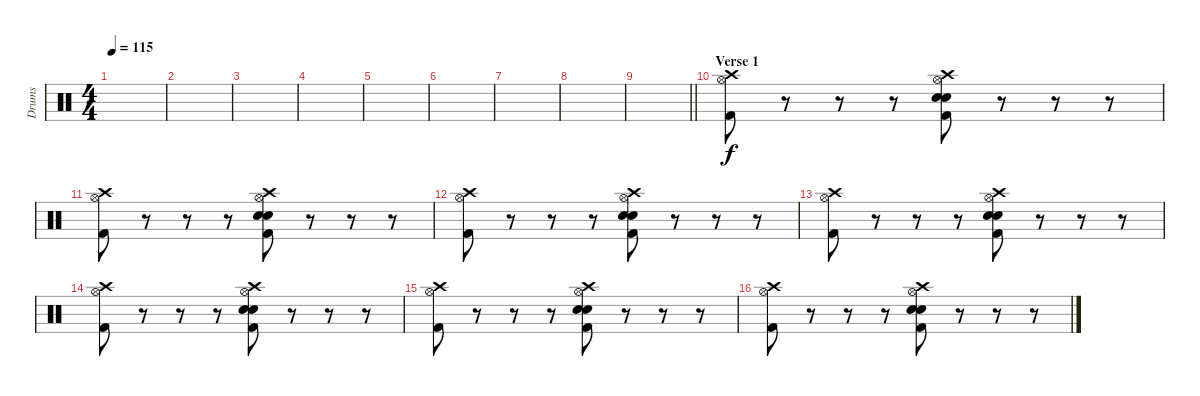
\track ("Drums" "Drums") {instrument percussion}
\staff {score}
\articulation defaults
\ts (4 4)
\tempo 115
\clef neutral
\ks c
|
|
|
|
|
|
|
|
\barLineRight lightlight
|
\section ("" "Verse 1")
("Crash high (hit)" "Hi-Hat (open)" "Kick (hit) 2").8 r.8 r.8 r.8 ("Crash high (hit)" "Hi-Hat (open)" "Electric Snare (hit)" "Snare (hit) 2" "Kick (hit) 2").8 r.8 r.8 r.8 |
("Crash high (hit)" "Hi-Hat (open)" "Kick (hit) 2").8 r.8 r.8 r.8 ("Crash high (hit)" "Hi-Hat (open)" "Electric Snare (hit)" "Snare (hit) 2" "Kick (hit) 2").8 r.8 r.8 r.8 |
("Crash high (hit)" "Hi-Hat (open)" "Kick (hit) 2").8 r.8 r.8 r.8 ("Crash high (hit)" "Hi-Hat (open)" "Electric Snare (hit)" "Snare (hit) 2" "Kick (hit) 2").8 r.8 r.8 r.8 |
("Crash high (hit)" "Hi-Hat (open)" "Kick (hit) 2").8 r.8 r.8 r.8 ("Crash high (hit)" "Hi-Hat (open)" "Electric Snare (hit)" "Snare (hit) 2" "Kick (hit) 2").8 r.8 r.8 r.8 |
("Crash high (hit)" "Hi-Hat (open)" "Kick (hit) 2").8 r.8 r.8 r.8 ("Crash high (hit)" "Hi-Hat (open)" "Electric Snare (hit)" "Snare (hit) 2" "Kick (hit) 2").8 r.8 r.8 r.8 |
("Crash high (hit)" "Hi-Hat (open)" "Kick (hit) 2").8 r.8 r.8 r.8 ("Crash high (hit)" "Hi-Hat (open)" "Electric Snare (hit)" "Snare (hit) 2" "Kick (hit) 2").8 r.8 r.8 r.8 |
("Crash high (hit)" "Hi-Hat (open)" "Kick (hit) 2").8 r.8 r.8 r.8 ("Crash high (hit)" "Hi-Hat (open)" "Electric Snare (hit)" "Snare (hit) 2" "Kick (hit) 2").8 r.8 r.8 r.8
